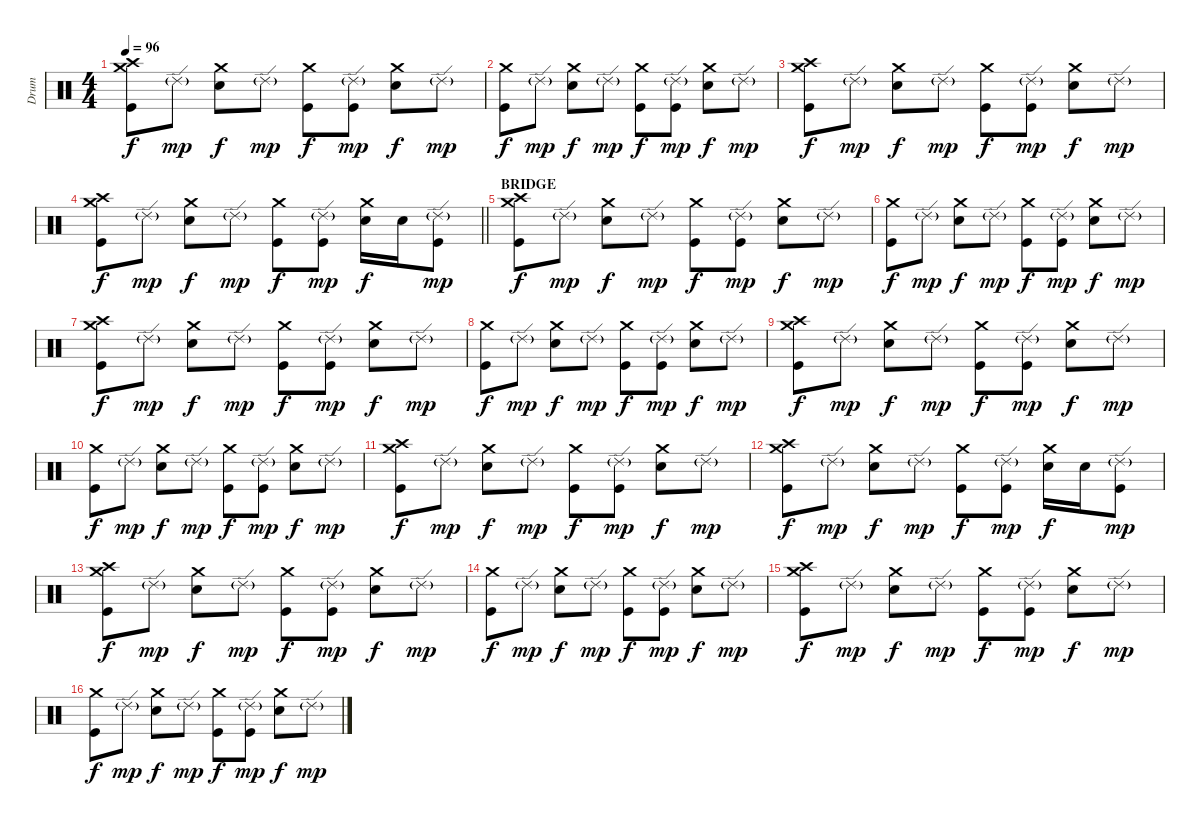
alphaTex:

\track ("Drum" "Drum") {instrument percussion}
\staff {score}
\articulation defaults
\ts (4 4)
\tempo 96
\clef neutral
\ks c
("Crash high (hit)" "Crash medium (hit)" "Kick (hit)").8{dy f} "Ride (edge) 2"{g}.8{dy mp} ("Crash medium (hit)" "Electric Snare (hit)").8{dy f} "Ride (edge) 2"{g}.8{dy mp} ("Crash medium (hit)" "Kick (hit)").8{dy f} ("Ride (edge) 2"{g} "Kick (hit)").8{dy mp} ("Crash medium (hit)" "Electric Snare (hit)").8{dy f} "Ride (edge) 2"{g}.8{dy mp} |
("Crash medium (hit)" "Kick (hit)").8{dy f} "Ride (edge) 2"{g}.8{dy mp} ("Crash medium (hit)" "Electric Snare (hit)").8{dy f} "Ride (edge) 2"{g}.8{dy mp} ("Crash medium (hit)" "Kick (hit)").8{dy f} ("Ride (edge) 2"{g} "Kick (hit)").8{dy mp} ("Crash medium (hit)" "Electric Snare (hit)").8{dy f} "Ride (edge) 2"{g}.8{dy mp} |
("Crash high (hit)" "Crash medium (hit)" "Kick (hit)").8{dy f} "Ride (edge) 2"{g}.8{dy mp} ("Crash medium (hit)" "Electric Snare (hit)").8{dy f} "Ride (edge) 2"{g}.8{dy mp} ("Crash medium (hit)" "Kick (hit)").8{dy f} ("Ride (edge) 2"{g} "Kick (hit)").8{dy mp} ("Crash medium (hit)" "Electric Snare (hit)").8{dy f} "Ride (edge) 2"{g}.8{dy mp} |
\barLineRight lightlight
("Crash high (hit)" "Crash medium (hit)" "Kick (hit)").8{dy f} "Ride (edge) 2"{g}.8{dy mp} ("Crash medium (hit)" "Electric Snare (hit)").8{dy f} "Ride (edge) 2"{g}.8{dy mp} ("Crash medium (hit)" "Kick (hit)").8{dy f} ("Ride (edge) 2"{g} "Kick (hit)").8{dy mp} ("Crash medium (hit)" "Electric Snare (hit)").16{dy f} "Electric Snare (hit)".16 ("Ride (edge) 2"{g} "Kick (hit)").8{dy mp} |
\section ("" "BRIDGE")
("Crash high (hit)" "Crash medium (hit)" "Kick (hit)").8{dy f} "Ride (edge) 2"{g}.8{dy mp} ("Crash medium (hit)" "Electric Snare (hit)").8{dy f} "Ride (edge) 2"{g}.8{dy mp} ("Crash medium (hit)" "Kick (hit)").8{dy f} ("Ride (edge) 2"{g} "Kick (hit)").8{dy mp} ("Crash medium (hit)" "Electric Snare (hit)").8{dy f} "Ride (edge) 2"{g}.8{dy mp} |
("Crash medium (hit)" "Kick (hit)").8{dy f} "Ride (edge) 2"{g}.8{dy mp} ("Crash medium (hit)" "Electric Snare (hit)").8{dy f} "Ride (edge) 2"{g}.8{dy mp} ("Crash medium (hit)" "Kick (hit)").8{dy f} ("Ride (edge) 2"{g} "Kick (hit)").8{dy mp} ("Crash medium (hit)" "Electric Snare (hit)").8{dy f} "Ride (edge) 2"{g}.8{dy mp} |
("Crash high (hit)" "Crash medium (hit)" "Kick (hit)").8{dy f} "Ride (edge) 2"{g}.8{dy mp} ("Crash medium (hit)" "Electric Snare (hit)").8{dy f} "Ride (edge) 2"{g}.8{dy mp} ("Crash medium (hit)" "Kick (hit)").8{dy f} ("Ride (edge) 2"{g} "Kick (hit)").8{dy mp} ("Crash medium (hit)" "Electric Snare (hit)").8{dy f} "Ride (edge) 2"{g}.8{dy mp} |
("Crash medium (hit)" "Kick (hit)").8{dy f} "Ride (edge) 2"{g}.8{dy mp} ("Crash medium (hit)" "Electric Snare (hit)").8{dy f} "Ride (edge) 2"{g}.8{dy mp} ("Crash medium (hit)" "Kick (hit)").8{dy f} ("Ride (edge) 2"{g} "Kick (hit)").8{dy mp} ("Crash medium (hit)" "Electric Snare (hit)").8{dy f} "Ride (edge) 2"{g}.8{dy mp} |
("Crash high (hit)" "Crash medium (hit)" "Kick (hit)").8{dy f} "Ride (edge) 2"{g}.8{dy mp} ("Crash medium (hit)" "Electric Snare (hit)").8{dy f} "Ride (edge) 2"{g}.8{dy mp} ("Crash medium (hit)" "Kick (hit)").8{dy f} ("Ride (edge) 2"{g} "Kick (hit)").8{dy mp} ("Crash medium (hit)" "Electric Snare (hit)").8{dy f} "Ride (edge) 2"{g}.8{dy mp} |
("Crash medium (hit)" "Kick (hit)").8{dy f} "Ride (edge) 2"{g}.8{dy mp} ("Crash medium (hit)" "Electric Snare (hit)").8{dy f} "Ride (edge) 2"{g}.8{dy mp} ("Crash medium (hit)" "Kick (hit)").8{dy f} ("Ride (edge) 2"{g} "Kick (hit)").8{dy mp} ("Crash medium (hit)" "Electric Snare (hit)").8{dy f} "Ride (edge) 2"{g}.8{dy mp} |
("Crash high (hit)" "Crash medium (hit)" "Kick (hit)").8{dy f} "Ride (edge) 2"{g}.8{dy mp} ("Crash medium (hit)" "Electric Snare (hit)").8{dy f} "Ride (edge) 2"{g}.8{dy mp} ("Crash medium (hit)" "Kick (hit)").8{dy f} ("Ride (edge) 2"{g} "Kick (hit)").8{dy mp} ("Crash medium (hit)" "Electric Snare (hit)").8{dy f} "Ride (edge) 2"{g}.8{dy mp} |
("Crash high (hit)" "Crash medium (hit)" "Kick (hit)").8{dy f} "Ride (edge) 2"{g}.8{dy mp} ("Crash medium (hit)" "Electric Snare (hit)").8{dy f} "Ride (edge) 2"{g}.8{dy mp} ("Crash medium (hit)" "Kick (hit)").8{dy f} ("Ride (edge) 2"{g} "Kick (hit)").8{dy mp} ("Crash medium (hit)" "Electric Snare (hit)").16{dy f} "Electric Snare (hit)".16 ("Ride (edge) 2"{g} "Kick (hit)").8{dy mp} |
("Crash high (hit)" "Crash medium (hit)" "Kick (hit)").8{dy f} "Ride (edge) 2"{g}.8{dy mp} ("Crash medium (hit)" "Electric Snare (hit)").8{dy f} "Ride (edge) 2"{g}.8{dy mp} ("Crash medium (hit)" "Kick (hit)").8{dy f} ("Ride (edge) 2"{g} "Kick (hit)").8{dy mp} ("Crash medium (hit)" "Electric Snare (hit)").8{dy f} "Ride (edge) 2"{g}.8{dy mp} |
("Crash medium (hit)" "Kick (hit)").8{dy f} "Ride (edge) 2"{g}.8{dy mp} ("Crash medium (hit)" "Electric Snare (hit)").8{dy f} "Ride (edge) 2"{g}.8{dy mp} ("Crash medium (hit)" "Kick (hit)").8{dy f} ("Ride (edge) 2"{g} "Kick (hit)").8{dy mp} ("Crash medium (hit)" "Electric Snare (hit)").8{dy f} "Ride (edge) 2"{g}.8{dy mp} |
("Crash high (hit)" "Crash medium (hit)" "Kick (hit)").8{dy f} "Ride (edge) 2"{g}.8{dy mp} ("Crash medium (hit)" "Electric Snare (hit)").8{dy f} "Ride (edge) 2"{g}.8{dy mp} ("Crash medium (hit)" "Kick (hit)").8{dy f} ("Ride (edge) 2"{g} "Kick (hit)").8{dy mp} ("Crash medium (hit)" "Electric Snare (hit)").8{dy f} "Ride (edge) 2"{g}.8{dy mp} |
("Crash medium (hit)" "Kick (hit)").8{dy f} "Ride (edge) 2"{g}.8{dy mp} ("Crash medium (hit)" "Electric Snare (hit)").8{dy f} "Ride (edge) 2"{g}.8{dy mp} ("Crash medium (hit)" "Kick (hit)").8{dy f} ("Ride (edge) 2"{g} "Kick (hit)").8{dy mp} ("Crash medium (hit)" "Electric Snare (hit)").8{dy f} "Ride (edge) 2"{g}.8{dy mp}
